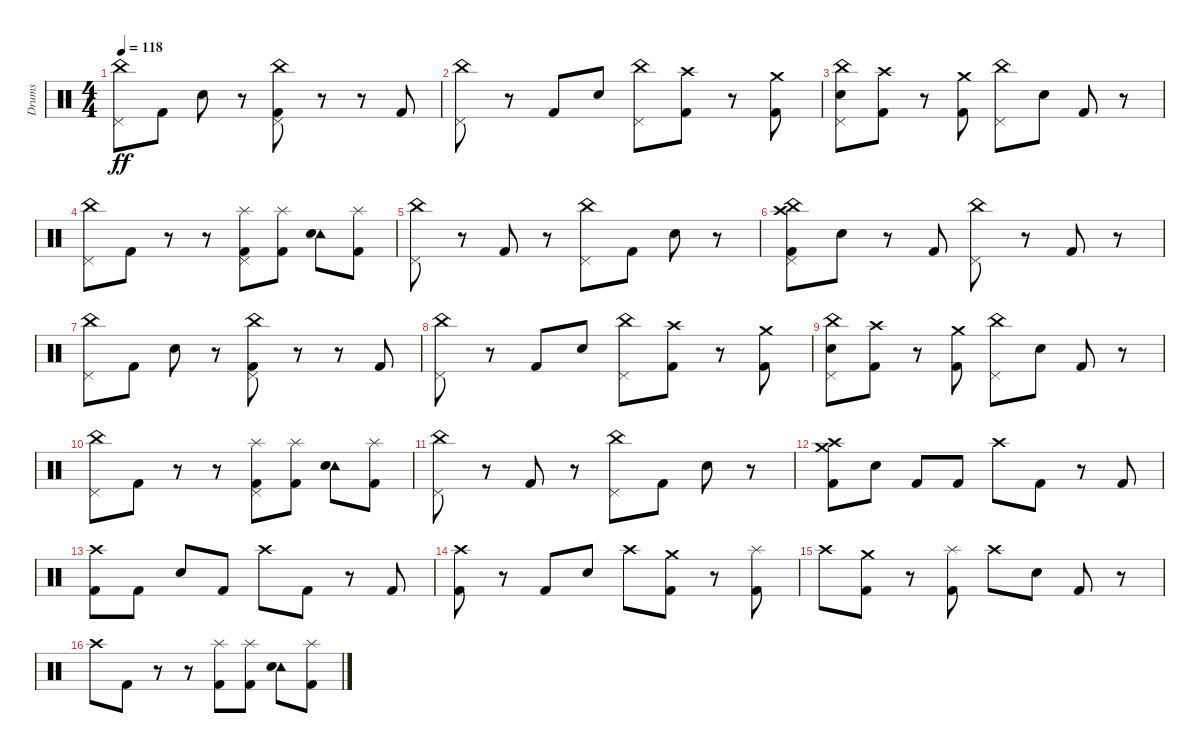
\track ("Drums" "Drums") {instrument percussion}
\staff {score}
\articulation defaults
\ts (4 4)
\tempo 118
\clef neutral
\ks c
("China (hit)" "Pedal Hi-Hat (hit)").8{dy ff} "Kick (hit) 2".8 "Electric Snare (hit)".8 r.8 ("China (hit)" "Pedal Hi-Hat (hit)" "Kick (hit) 2").8 r.8 r.8 "Kick (hit) 2".8 |
("China (hit)" "Pedal Hi-Hat (hit)").8 r.8 "Kick (hit) 2".8 "Electric Snare (hit)".8 ("China (hit)" "Pedal Hi-Hat (hit)").8 ("Crash high (hit)" "Kick (hit) 2").8 r.8 ("Crash medium (hit)" "Kick (hit) 2").8 |
("China (hit)" "Pedal Hi-Hat (hit)" "Electric Snare (hit)").8 ("Crash high (hit)" "Kick (hit) 2").8 r.8 ("Crash medium (hit)" "Kick (hit) 2").8 ("China (hit)" "Pedal Hi-Hat (hit)").8 "Electric Snare (hit)".8 "Kick (hit) 2".8 r.8 |
("China (hit)" "Pedal Hi-Hat (hit)").8 "Kick (hit) 2".8 r.8 r.8 ("Splash (hit)" "Pedal Hi-Hat (hit)" "Kick (hit) 2").8 ("Splash (hit)" "Kick (hit) 2").8 ("Tambourine (hit)" "Electric Snare (hit)").8 ("Splash (hit)" "Kick (hit) 2").8 |
("China (hit)" "Pedal Hi-Hat (hit)").8 r.8 "Kick (hit) 2".8 r.8 ("China (hit)" "Pedal Hi-Hat (hit)").8 "Kick (hit) 2".8 "Electric Snare (hit)".8 r.8 |
("Crash high (hit)" "China (hit)" "Pedal Hi-Hat (hit)" "Kick (hit) 2").8 "Electric Snare (hit)".8 r.8 "Kick (hit) 2".8 ("China (hit)" "Pedal Hi-Hat (hit)").8 r.8 "Kick (hit) 2".8 r.8 |
("China (hit)" "Pedal Hi-Hat (hit)").8 "Kick (hit) 2".8 "Electric Snare (hit)".8 r.8 ("China (hit)" "Pedal Hi-Hat (hit)" "Kick (hit) 2").8 r.8 r.8 "Kick (hit) 2".8 |
("China (hit)" "Pedal Hi-Hat (hit)").8 r.8 "Kick (hit) 2".8 "Electric Snare (hit)".8 ("China (hit)" "Pedal Hi-Hat (hit)").8 ("Crash high (hit)" "Kick (hit) 2").8 r.8 ("Crash medium (hit)" "Kick (hit) 2").8 |
("China (hit)" "Pedal Hi-Hat (hit)" "Electric Snare (hit)").8 ("Crash high (hit)" "Kick (hit) 2").8 r.8 ("Crash medium (hit)" "Kick (hit) 2").8 ("China (hit)" "Pedal Hi-Hat (hit)").8 "Electric Snare (hit)".8 "Kick (hit) 2".8 r.8 |
("China (hit)" "Pedal Hi-Hat (hit)").8 "Kick (hit) 2".8 r.8 r.8 ("Splash (hit)" "Pedal Hi-Hat (hit)" "Kick (hit) 2").8 ("Splash (hit)" "Kick (hit) 2").8 ("Tambourine (hit)" "Electric Snare (hit)").8 ("Splash (hit)" "Kick (hit) 2").8 |
("China (hit)" "Pedal Hi-Hat (hit)").8 r.8 "Kick (hit) 2".8 r.8 ("China (hit)" "Pedal Hi-Hat (hit)").8 "Kick (hit) 2".8 "Electric Snare (hit)".8 r.8 |
\section ("" "")
("Crash medium (hit)" "Crash high (hit)" "Kick (hit) 2").8 "Electric Snare (hit)".8 "Kick (hit) 2".8 "Kick (hit) 2".8 "Crash high (hit)".8 "Kick (hit) 2".8 r.8 "Kick (hit) 2".8 |
("Crash high (hit)" "Kick (hit) 2").8 "Kick (hit) 2".8 "Electric Snare (hit)".8 "Kick (hit) 2".8 "Crash high (hit)".8 "Kick (hit) 2".8 r.8 "Kick (hit) 2".8 |
("Crash high (hit)" "Kick (hit) 2").8 r.8 "Kick (hit) 2".8 "Electric Snare (hit)".8 "Crash high (hit)".8 ("Crash medium (hit)" "Kick (hit) 2").8 r.8 ("Splash (hit)" "Kick (hit) 2").8 |
"Crash high (hit)".8 ("Crash medium (hit)" "Kick (hit) 2").8 r.8 ("Splash (hit)" "Kick (hit) 2").8 "Crash high (hit)".8 "Electric Snare (hit)".8 "Kick (hit) 2".8 r.8 |
"Crash high (hit)".8 "Kick (hit) 2".8 r.8 r.8 ("Splash (hit)" "Kick (hit) 2").8 ("Splash (hit)" "Kick (hit) 2").8 ("Tambourine (hit)" "Electric Snare (hit)").8 ("Splash (hit)" "Kick (hit) 2").8
